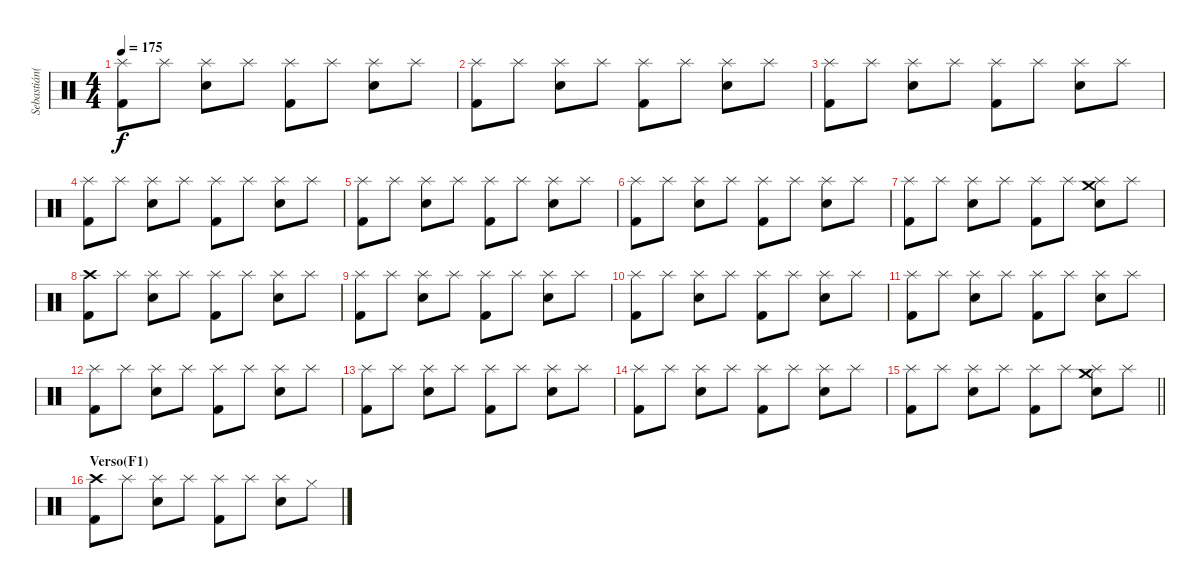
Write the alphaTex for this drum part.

\track ("Sebastián(Bateria)" "Sebastián(") {instrument percussion}
\staff {score}
\articulation defaults
\ts (4 4)
\tempo 175
\clef neutral
\ks c
("Splash (hit)" "Kick (hit) 2").8{dy f} "Splash (hit)".8 ("Splash (hit)" "Snare (hit) 2").8 "Splash (hit)".8 ("Splash (hit)" "Kick (hit) 2").8 "Splash (hit)".8 ("Splash (hit)" "Snare (hit) 2").8 "Splash (hit)".8 |
("Splash (hit)" "Kick (hit) 2").8 "Splash (hit)".8 ("Splash (hit)" "Snare (hit) 2").8 "Splash (hit)".8 ("Splash (hit)" "Kick (hit) 2").8 "Splash (hit)".8 ("Splash (hit)" "Snare (hit) 2").8 "Splash (hit)".8 |
("Splash (hit)" "Kick (hit) 2").8 "Splash (hit)".8 ("Splash (hit)" "Snare (hit) 2").8 "Splash (hit)".8 ("Splash (hit)" "Kick (hit) 2").8 "Splash (hit)".8 ("Splash (hit)" "Snare (hit) 2").8 "Splash (hit)".8 |
("Splash (hit)" "Kick (hit) 2").8 "Splash (hit)".8 ("Splash (hit)" "Snare (hit) 2").8 "Splash (hit)".8 ("Splash (hit)" "Kick (hit) 2").8 "Splash (hit)".8 ("Splash (hit)" "Snare (hit) 2").8 "Splash (hit)".8 |
("Splash (hit)" "Kick (hit) 2").8 "Splash (hit)".8 ("Splash (hit)" "Snare (hit) 2").8 "Splash (hit)".8 ("Splash (hit)" "Kick (hit) 2").8 "Splash (hit)".8 ("Splash (hit)" "Snare (hit) 2").8 "Splash (hit)".8 |
("Splash (hit)" "Kick (hit) 2").8 "Splash (hit)".8 ("Splash (hit)" "Snare (hit) 2").8 "Splash (hit)".8 ("Splash (hit)" "Kick (hit) 2").8 "Splash (hit)".8 ("Splash (hit)" "Snare (hit) 2").8 "Splash (hit)".8 |
("Splash (hit)" "Kick (hit) 2").8 "Splash (hit)".8 ("Splash (hit)" "Snare (hit) 2").8 "Splash (hit)".8 ("Splash (hit)" "Kick (hit) 2").8 "Splash (hit)".8 ("Crash medium (hit)" "Splash (hit)" "Snare (hit) 2").8 "Splash (hit)".8 |
("Crash high (hit)" "Kick (hit) 2").8 "Splash (hit)".8 ("Splash (hit)" "Snare (hit) 2").8 "Splash (hit)".8 ("Splash (hit)" "Kick (hit) 2").8 "Splash (hit)".8 ("Splash (hit)" "Snare (hit) 2").8 "Splash (hit)".8 |
("Splash (hit)" "Kick (hit) 2").8 "Splash (hit)".8 ("Splash (hit)" "Snare (hit) 2").8 "Splash (hit)".8 ("Splash (hit)" "Kick (hit) 2").8 "Splash (hit)".8 ("Splash (hit)" "Snare (hit) 2").8 "Splash (hit)".8 |
("Splash (hit)" "Kick (hit) 2").8 "Splash (hit)".8 ("Splash (hit)" "Snare (hit) 2").8 "Splash (hit)".8 ("Splash (hit)" "Kick (hit) 2").8 "Splash (hit)".8 ("Splash (hit)" "Snare (hit) 2").8 "Splash (hit)".8 |
("Splash (hit)" "Kick (hit) 2").8 "Splash (hit)".8 ("Splash (hit)" "Snare (hit) 2").8 "Splash (hit)".8 ("Splash (hit)" "Kick (hit) 2").8 "Splash (hit)".8 ("Splash (hit)" "Snare (hit) 2").8 "Splash (hit)".8 |
("Splash (hit)" "Kick (hit) 2").8 "Splash (hit)".8 ("Splash (hit)" "Snare (hit) 2").8 "Splash (hit)".8 ("Splash (hit)" "Kick (hit) 2").8 "Splash (hit)".8 ("Splash (hit)" "Snare (hit) 2").8 "Splash (hit)".8 |
("Splash (hit)" "Kick (hit) 2").8 "Splash (hit)".8 ("Splash (hit)" "Snare (hit) 2").8 "Splash (hit)".8 ("Splash (hit)" "Kick (hit) 2").8 "Splash (hit)".8 ("Splash (hit)" "Snare (hit) 2").8 "Splash (hit)".8 |
("Splash (hit)" "Kick (hit) 2").8 "Splash (hit)".8 ("Splash (hit)" "Snare (hit) 2").8 "Splash (hit)".8 ("Splash (hit)" "Kick (hit) 2").8 "Splash (hit)".8 ("Splash (hit)" "Snare (hit) 2").8 "Splash (hit)".8 |
\barLineRight lightlight
("Splash (hit)" "Kick (hit) 2").8 "Splash (hit)".8 ("Splash (hit)" "Snare (hit) 2").8 "Splash (hit)".8 ("Splash (hit)" "Kick (hit) 2").8 "Splash (hit)".8 ("Crash medium (hit)" "Splash (hit)" "Snare (hit) 2").8 "Splash (hit)".8 |
\section ("" "Verso(F1)")
("Crash high (hit)" "Kick (hit) 2").8 "Splash (hit)".8 ("Splash (hit)" "Snare (hit) 2").8 "Splash (hit)".8 ("Splash (hit)" "Kick (hit) 2").8 "Splash (hit)".8 ("Splash (hit)" "Snare (hit) 2").8 "Hi-Hat (closed)".8
